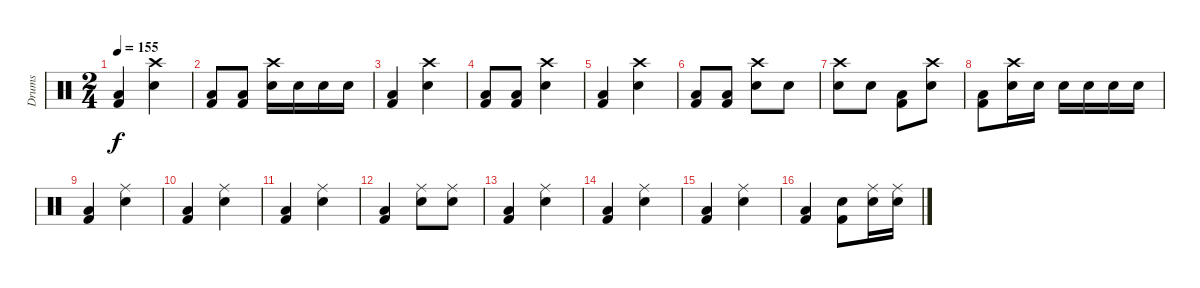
\track ("Drums" "Drums") {instrument percussion}
\staff {score}
\articulation defaults
\ts (2 4)
\tempo 155
\clef neutral
\ks c
("Kick (hit) 2" "Low Floor Tom (hit)").4{dy f} ("Crash high (hit)" "Snare (hit) 2").4 |
("Low Floor Tom (hit)" "Kick (hit) 2").8 ("Low Floor Tom (hit)" "Kick (hit) 2").8 ("Snare (hit) 2" "Crash high (hit)").16 "Snare (hit) 2".16 "Snare (hit) 2".16 "Snare (hit) 2".16 |
("Low Floor Tom (hit)" "Kick (hit) 2").4 ("Snare (hit) 2" "Crash high (hit)").4 |
("Low Floor Tom (hit)" "Kick (hit) 2").8 ("Low Floor Tom (hit)" "Kick (hit) 2").8 ("Snare (hit) 2" "Crash high (hit)").4 |
("Low Floor Tom (hit)" "Kick (hit) 2").4 ("Snare (hit) 2" "Crash high (hit)").4 |
("Low Floor Tom (hit)" "Kick (hit) 2").8 ("Low Floor Tom (hit)" "Kick (hit) 2").8 ("Snare (hit) 2" "Crash high (hit)").8 "Snare (hit) 2".8 |
("Snare (hit) 2" "Crash high (hit)").8 "Snare (hit) 2".8 ("Low Floor Tom (hit)" "Kick (hit) 2").8 ("Snare (hit) 2" "Crash high (hit)").8 |
("Low Floor Tom (hit)" "Kick (hit) 2").8 ("Snare (hit) 2" "Crash high (hit)").16 "Snare (hit) 2".16 "Snare (hit) 2".16 "Snare (hit) 2".16 "Snare (hit) 2".16 "Snare (hit) 2".16 |
("Low Floor Tom (hit)" "Kick (hit) 2").4 ("Snare (hit) 2" "Ride (middle)").4 |
("Low Floor Tom (hit)" "Kick (hit) 2").4 ("Snare (hit) 2" "Ride (middle)").4 |
("Low Floor Tom (hit)" "Kick (hit) 2").4 ("Snare (hit) 2" "Ride (middle)").4 |
("Low Floor Tom (hit)" "Kick (hit) 2").4 ("Snare (hit) 2" "Ride (middle)").8 ("Snare (hit) 2" "Ride (middle)").8 |
("Low Floor Tom (hit)" "Kick (hit) 2").4 ("Snare (hit) 2" "Ride (middle)").4 |
("Low Floor Tom (hit)" "Kick (hit) 2").4 ("Snare (hit) 2" "Ride (middle)").4 |
("Low Floor Tom (hit)" "Kick (hit) 2").4 ("Snare (hit) 2" "Ride (middle)").4 |
("Low Floor Tom (hit)" "Kick (hit) 2").4 ("Snare (hit) 2" "Kick (hit) 2").8 ("Snare (hit) 2" "Ride (middle)").16 ("Snare (hit) 2" "Ride (middle)").16
